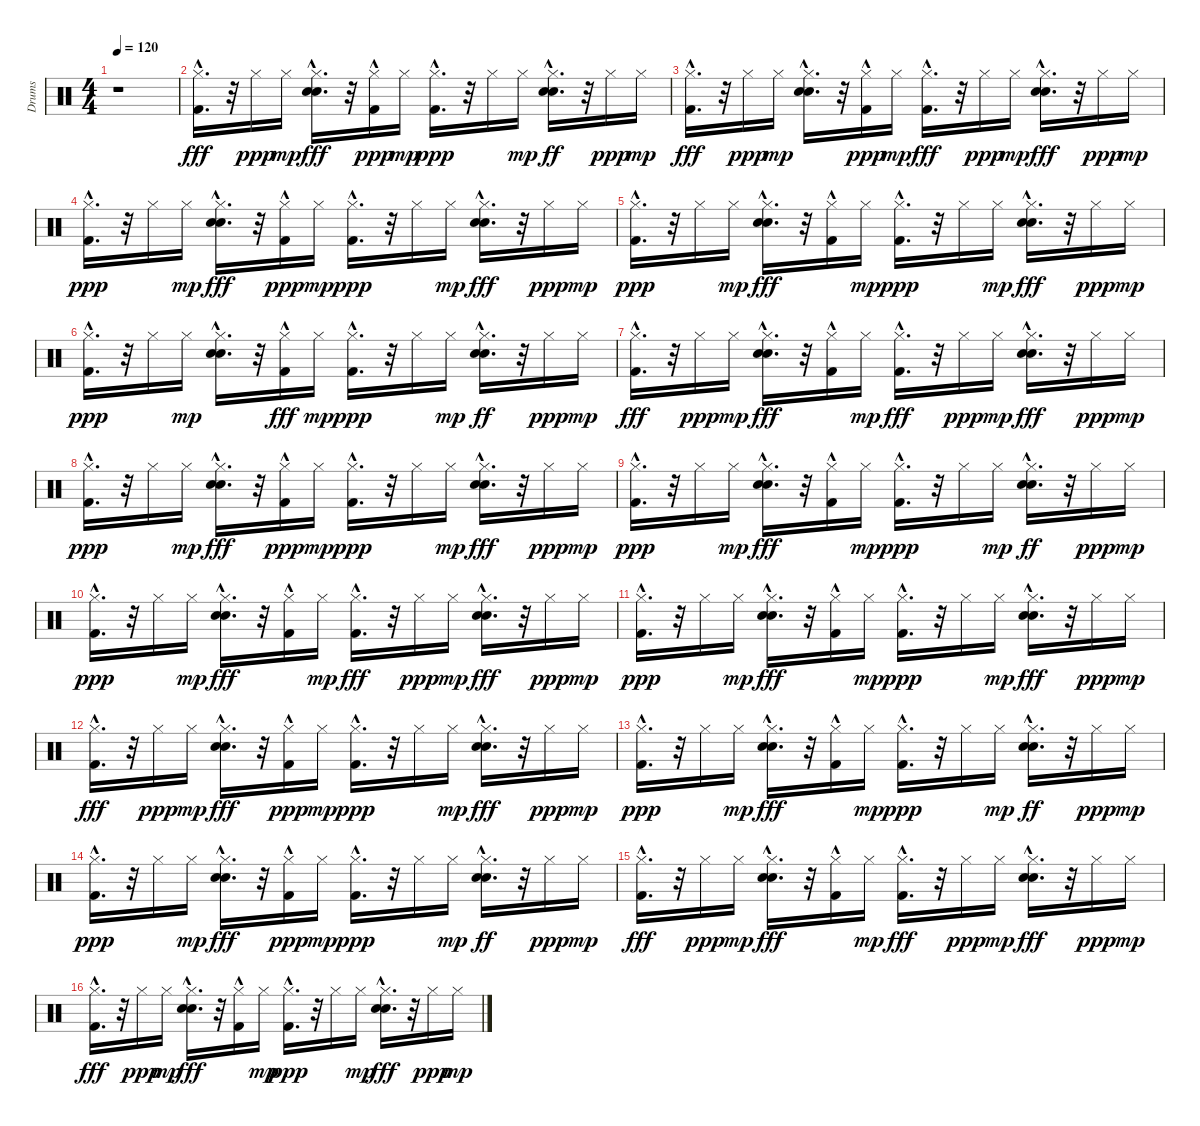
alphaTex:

\track ("Drums" "Drums") {instrument percussion}
\staff {score}
\articulation defaults
\ts (4 4)
\tempo 120
\clef neutral
\ks c
r.1{dy fff} |
("Hi-Hat (closed)"{hac} "Kick (hit) 2"{hac}).16{d} r.32 "Hi-Hat (closed)".16{dy ppp} "Hi-Hat (closed)".16{dy mp} ("Hand Clap (hit)"{hac} "Hi-Hat (closed)"{hac} "Snare (hit) 2"{hac}).16{d dy fff} r.32 ("Kick (hit) 2"{hac} "Hi-Hat (closed)").16{dy ppp} "Hi-Hat (closed)".16{dy mp} ("Kick (hit) 2"{hac} "Hi-Hat (closed)"{hac}).16{d dy ppp} r.32 "Hi-Hat (closed)".16 "Hi-Hat (closed)".16{dy mp} ("Snare (hit) 2"{hac} "Hand Clap (hit)"{hac} "Hi-Hat (closed)"{hac}).16{d dy ff} r.32 "Hi-Hat (closed)".16{dy ppp} "Hi-Hat (closed)".16{dy mp} |
("Hi-Hat (closed)"{hac} "Kick (hit) 2"{hac}).16{d dy fff} r.32 "Hi-Hat (closed)".16{dy ppp} "Hi-Hat (closed)".16{dy mp} ("Hand Clap (hit)"{hac} "Snare (hit) 2"{hac} "Hi-Hat (closed)"{hac}).16{d} r.32 ("Kick (hit) 2"{hac} "Hi-Hat (closed)").16{dy ppp} "Hi-Hat (closed)".16{dy mp} ("Hi-Hat (closed)"{hac} "Kick (hit) 2"{hac}).16{d dy fff} r.32 "Hi-Hat (closed)".16{dy ppp} "Hi-Hat (closed)".16{dy mp} ("Hi-Hat (closed)"{hac} "Snare (hit) 2"{hac} "Hand Clap (hit)"{hac}).16{d dy fff} r.32 "Hi-Hat (closed)".16{dy ppp} "Hi-Hat (closed)".16{dy mp} |
("Kick (hit) 2"{hac} "Hi-Hat (closed)"{hac}).16{d dy ppp} r.32 "Hi-Hat (closed)".16 "Hi-Hat (closed)".16{dy mp} ("Hi-Hat (closed)"{hac} "Hand Clap (hit)"{hac} "Snare (hit) 2"{hac}).16{d dy fff} r.32 ("Kick (hit) 2"{hac} "Hi-Hat (closed)").16{dy ppp} "Hi-Hat (closed)".16{dy mp} ("Kick (hit) 2"{hac} "Hi-Hat (closed)"{hac}).16{d dy ppp} r.32 "Hi-Hat (closed)".16 "Hi-Hat (closed)".16{dy mp} ("Snare (hit) 2"{hac} "Hi-Hat (closed)"{hac} "Hand Clap (hit)"{hac}).16{d dy fff} r.32 "Hi-Hat (closed)".16{dy ppp} "Hi-Hat (closed)".16{dy mp} |
("Kick (hit) 2"{hac} "Hi-Hat (closed)"{hac}).16{d dy ppp} r.32 "Hi-Hat (closed)".16 "Hi-Hat (closed)".16{dy mp} ("Hi-Hat (closed)"{hac} "Hand Clap (hit)"{hac} "Snare (hit) 2"{hac}).16{d dy fff} r.32 ("Hi-Hat (closed)" "Kick (hit) 2"{hac}).16 "Hi-Hat (closed)".16{dy mp} ("Kick (hit) 2"{hac} "Hi-Hat (closed)"{hac}).16{d dy ppp} r.32 "Hi-Hat (closed)".16 "Hi-Hat (closed)".16{dy mp} ("Snare (hit) 2"{hac} "Hi-Hat (closed)"{hac} "Hand Clap (hit)"{hac}).16{d dy fff} r.32 "Hi-Hat (closed)".16{dy ppp} "Hi-Hat (closed)".16{dy mp} |
("Kick (hit) 2"{hac} "Hi-Hat (closed)"{hac}).16{d dy ppp} r.32 "Hi-Hat (closed)".16 "Hi-Hat (closed)".16{dy mp} ("Snare (hit) 2"{hac} "Hand Clap (hit)"{hac} "Hi-Hat (closed)"{hac}).16{d} r.32 ("Hi-Hat (closed)" "Kick (hit) 2"{hac}).16{dy fff} "Hi-Hat (closed)".16{dy mp} ("Kick (hit) 2"{hac} "Hi-Hat (closed)"{hac}).16{d dy ppp} r.32 "Hi-Hat (closed)".16 "Hi-Hat (closed)".16{dy mp} ("Snare (hit) 2"{hac} "Hand Clap (hit)"{hac} "Hi-Hat (closed)"{hac}).16{d dy ff} r.32 "Hi-Hat (closed)".16{dy ppp} "Hi-Hat (closed)".16{dy mp} |
("Hi-Hat (closed)"{hac} "Kick (hit) 2"{hac}).16{d dy fff} r.32 "Hi-Hat (closed)".16{dy ppp} "Hi-Hat (closed)".16{dy mp} ("Snare (hit) 2"{hac} "Hi-Hat (closed)"{hac} "Hand Clap (hit)"{hac}).16{d dy fff} r.32 ("Hi-Hat (closed)" "Kick (hit) 2"{hac}).16 "Hi-Hat (closed)".16{dy mp} ("Hi-Hat (closed)"{hac} "Kick (hit) 2"{hac}).16{d dy fff} r.32 "Hi-Hat (closed)".16{dy ppp} "Hi-Hat (closed)".16{dy mp} ("Snare (hit) 2"{hac} "Hi-Hat (closed)"{hac} "Hand Clap (hit)"{hac}).16{d dy fff} r.32 "Hi-Hat (closed)".16{dy ppp} "Hi-Hat (closed)".16{dy mp} |
("Kick (hit) 2"{hac} "Hi-Hat (closed)"{hac}).16{d dy ppp} r.32 "Hi-Hat (closed)".16 "Hi-Hat (closed)".16{dy mp} ("Hi-Hat (closed)"{hac} "Snare (hit) 2"{hac} "Hand Clap (hit)"{hac}).16{d dy fff} r.32 ("Kick (hit) 2"{hac} "Hi-Hat (closed)").16{dy ppp} "Hi-Hat (closed)".16{dy mp} ("Kick (hit) 2"{hac} "Hi-Hat (closed)"{hac}).16{d dy ppp} r.32 "Hi-Hat (closed)".16 "Hi-Hat (closed)".16{dy mp} ("Hi-Hat (closed)"{hac} "Snare (hit) 2"{hac} "Hand Clap (hit)"{hac}).16{d dy fff} r.32 "Hi-Hat (closed)".16{dy ppp} "Hi-Hat (closed)".16{dy mp} |
("Kick (hit) 2"{hac} "Hi-Hat (closed)"{hac}).16{d dy ppp} r.32 "Hi-Hat (closed)".16 "Hi-Hat (closed)".16{dy mp} ("Hi-Hat (closed)"{hac} "Hand Clap (hit)"{hac} "Snare (hit) 2"{hac}).16{d dy fff} r.32 ("Hi-Hat (closed)" "Kick (hit) 2"{hac}).16 "Hi-Hat (closed)".16{dy mp} ("Kick (hit) 2"{hac} "Hi-Hat (closed)"{hac}).16{d dy ppp} r.32 "Hi-Hat (closed)".16 "Hi-Hat (closed)".16{dy mp} ("Snare (hit) 2"{hac} "Hand Clap (hit)"{hac} "Hi-Hat (closed)"{hac}).16{d dy ff} r.32 "Hi-Hat (closed)".16{dy ppp} "Hi-Hat (closed)".16{dy mp} |
("Kick (hit) 2"{hac} "Hi-Hat (closed)"{hac}).16{d dy ppp} r.32 "Hi-Hat (closed)".16 "Hi-Hat (closed)".16{dy mp} ("Snare (hit) 2"{hac} "Hi-Hat (closed)"{hac} "Hand Clap (hit)"{hac}).16{d dy fff} r.32 ("Hi-Hat (closed)" "Kick (hit) 2"{hac}).16 "Hi-Hat (closed)".16{dy mp} ("Hi-Hat (closed)"{hac} "Kick (hit) 2"{hac}).16{d dy fff} r.32 "Hi-Hat (closed)".16{dy ppp} "Hi-Hat (closed)".16{dy mp} ("Hi-Hat (closed)"{hac} "Snare (hit) 2"{hac} "Hand Clap (hit)"{hac}).16{d dy fff} r.32 "Hi-Hat (closed)".16{dy ppp} "Hi-Hat (closed)".16{dy mp} |
("Kick (hit) 2"{hac} "Hi-Hat (closed)"{hac}).16{d dy ppp} r.32 "Hi-Hat (closed)".16 "Hi-Hat (closed)".16{dy mp} ("Hi-Hat (closed)"{hac} "Snare (hit) 2"{hac} "Hand Clap (hit)"{hac}).16{d dy fff} r.32 ("Hi-Hat (closed)" "Kick (hit) 2"{hac}).16 "Hi-Hat (closed)".16{dy mp} ("Kick (hit) 2"{hac} "Hi-Hat (closed)"{hac}).16{d dy ppp} r.32 "Hi-Hat (closed)".16 "Hi-Hat (closed)".16{dy mp} ("Hand Clap (hit)"{hac} "Hi-Hat (closed)"{hac} "Snare (hit) 2"{hac}).16{d dy fff} r.32 "Hi-Hat (closed)".16{dy ppp} "Hi-Hat (closed)".16{dy mp} |
("Hi-Hat (closed)"{hac} "Kick (hit) 2"{hac}).16{d dy fff} r.32 "Hi-Hat (closed)".16{dy ppp} "Hi-Hat (closed)".16{dy mp} ("Hi-Hat (closed)"{hac} "Snare (hit) 2"{hac} "Hand Clap (hit)"{hac}).16{d dy fff} r.32 ("Kick (hit) 2"{hac} "Hi-Hat (closed)").16{dy ppp} "Hi-Hat (closed)".16{dy mp} ("Kick (hit) 2"{hac} "Hi-Hat (closed)"{hac}).16{d dy ppp} r.32 "Hi-Hat (closed)".16 "Hi-Hat (closed)".16{dy mp} ("Hi-Hat (closed)"{hac} "Hand Clap (hit)"{hac} "Snare (hit) 2"{hac}).16{d dy fff} r.32 "Hi-Hat (closed)".16{dy ppp} "Hi-Hat (closed)".16{dy mp} |
("Kick (hit) 2"{hac} "Hi-Hat (closed)"{hac}).16{d dy ppp} r.32 "Hi-Hat (closed)".16 "Hi-Hat (closed)".16{dy mp} ("Hi-Hat (closed)"{hac} "Hand Clap (hit)"{hac} "Snare (hit) 2"{hac}).16{d dy fff} r.32 ("Hi-Hat (closed)" "Kick (hit) 2"{hac}).16 "Hi-Hat (closed)".16{dy mp} ("Kick (hit) 2"{hac} "Hi-Hat (closed)"{hac}).16{d dy ppp} r.32 "Hi-Hat (closed)".16 "Hi-Hat (closed)".16{dy mp} ("Hand Clap (hit)"{hac} "Snare (hit) 2"{hac} "Hi-Hat (closed)"{hac}).16{d dy ff} r.32 "Hi-Hat (closed)".16{dy ppp} "Hi-Hat (closed)".16{dy mp} |
("Kick (hit) 2"{hac} "Hi-Hat (closed)"{hac}).16{d dy ppp} r.32 "Hi-Hat (closed)".16 "Hi-Hat (closed)".16{dy mp} ("Hi-Hat (closed)"{hac} "Snare (hit) 2"{hac} "Hand Clap (hit)"{hac}).16{d dy fff} r.32 ("Kick (hit) 2"{hac} "Hi-Hat (closed)").16{dy ppp} "Hi-Hat (closed)".16{dy mp} ("Kick (hit) 2"{hac} "Hi-Hat (closed)"{hac}).16{d dy ppp} r.32 "Hi-Hat (closed)".16 "Hi-Hat (closed)".16{dy mp} ("Snare (hit) 2"{hac} "Hand Clap (hit)"{hac} "Hi-Hat (closed)"{hac}).16{d dy ff} r.32 "Hi-Hat (closed)".16{dy ppp} "Hi-Hat (closed)".16{dy mp} |
("Hi-Hat (closed)"{hac} "Kick (hit) 2"{hac}).16{d dy fff} r.32 "Hi-Hat (closed)".16{dy ppp} "Hi-Hat (closed)".16{dy mp} ("Hi-Hat (closed)"{hac} "Snare (hit) 2"{hac} "Hand Clap (hit)"{hac}).16{d dy fff} r.32 ("Hi-Hat (closed)" "Kick (hit) 2"{hac}).16 "Hi-Hat (closed)".16{dy mp} ("Hi-Hat (closed)"{hac} "Kick (hit) 2"{hac}).16{d dy fff} r.32 "Hi-Hat (closed)".16{dy ppp} "Hi-Hat (closed)".16{dy mp} ("Snare (hit) 2"{hac} "Hi-Hat (closed)"{hac} "Hand Clap (hit)"{hac}).16{d dy fff} r.32 "Hi-Hat (closed)".16{dy ppp} "Hi-Hat (closed)".16{dy mp} |
("Hi-Hat (closed)"{hac} "Kick (hit) 2"{hac}).16{d dy fff} r.32 "Hi-Hat (closed)".16{dy ppp} "Hi-Hat (closed)".16{dy mp} ("Hand Clap (hit)"{hac} "Hi-Hat (closed)"{hac} "Snare (hit) 2"{hac}).16{d dy fff} r.32 ("Hi-Hat (closed)" "Kick (hit) 2"{hac}).16 "Hi-Hat (closed)".16{dy mp} ("Kick (hit) 2"{hac} "Hi-Hat (closed)"{hac}).16{d dy ppp} r.32 "Hi-Hat (closed)".16 "Hi-Hat (closed)".16{dy mp} ("Snare (hit) 2"{hac} "Hi-Hat (closed)"{hac} "Hand Clap (hit)"{hac}).16{d dy fff} r.32 "Hi-Hat (closed)".16{dy ppp} "Hi-Hat (closed)".16{dy mp}
